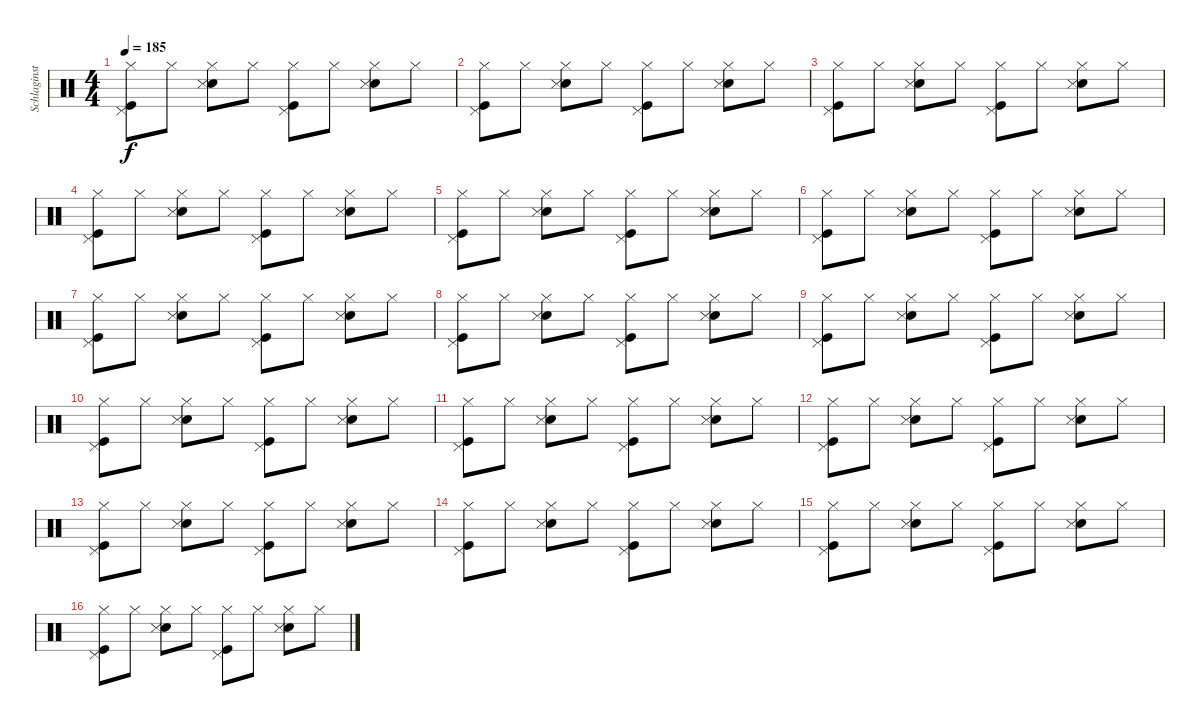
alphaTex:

\track ("Schlaginstrumente - Auswahl" "Schlaginst") {instrument percussion}
\staff {score}
\articulation defaults
\ts (4 4)
\tempo 185
\clef neutral
\ks c
("Kick (hit)" "Pedal Hi-Hat (hit)" "Hi-Hat (closed)").8{dy f} "Hi-Hat (closed)".8 ("Snare (hit) 2" "Snare (side stick) 3" "Hi-Hat (closed)").8 "Hi-Hat (closed)".8 ("Kick (hit)" "Pedal Hi-Hat (hit)" "Hi-Hat (closed)").8 "Hi-Hat (closed)".8 ("Snare (hit) 2" "Snare (side stick) 3" "Hi-Hat (closed)").8 "Hi-Hat (closed)".8 |
("Kick (hit)" "Pedal Hi-Hat (hit)" "Hi-Hat (closed)").8 "Hi-Hat (closed)".8 ("Snare (hit) 2" "Snare (side stick) 3" "Hi-Hat (closed)").8 "Hi-Hat (closed)".8 ("Kick (hit)" "Pedal Hi-Hat (hit)" "Hi-Hat (closed)").8 "Hi-Hat (closed)".8 ("Snare (hit) 2" "Snare (side stick) 3" "Hi-Hat (closed)").8 "Hi-Hat (closed)".8 |
("Kick (hit)" "Pedal Hi-Hat (hit)" "Hi-Hat (closed)").8 "Hi-Hat (closed)".8 ("Snare (hit) 2" "Snare (side stick) 3" "Hi-Hat (closed)").8 "Hi-Hat (closed)".8 ("Kick (hit)" "Pedal Hi-Hat (hit)" "Hi-Hat (closed)").8 "Hi-Hat (closed)".8 ("Snare (hit) 2" "Snare (side stick) 3" "Hi-Hat (closed)").8 "Hi-Hat (closed)".8 |
("Kick (hit)" "Pedal Hi-Hat (hit)" "Hi-Hat (closed)").8 "Hi-Hat (closed)".8 ("Snare (hit) 2" "Snare (side stick) 3" "Hi-Hat (closed)").8 "Hi-Hat (closed)".8 ("Kick (hit)" "Pedal Hi-Hat (hit)" "Hi-Hat (closed)").8 "Hi-Hat (closed)".8 ("Snare (hit) 2" "Snare (side stick) 3" "Hi-Hat (closed)").8 "Hi-Hat (closed)".8 |
("Kick (hit)" "Pedal Hi-Hat (hit)" "Hi-Hat (closed)").8 "Hi-Hat (closed)".8 ("Snare (hit) 2" "Snare (side stick) 3" "Hi-Hat (closed)").8 "Hi-Hat (closed)".8 ("Kick (hit)" "Pedal Hi-Hat (hit)" "Hi-Hat (closed)").8 "Hi-Hat (closed)".8 ("Snare (hit) 2" "Snare (side stick) 3" "Hi-Hat (closed)").8 "Hi-Hat (closed)".8 |
("Kick (hit)" "Pedal Hi-Hat (hit)" "Hi-Hat (closed)").8 "Hi-Hat (closed)".8 ("Snare (hit) 2" "Snare (side stick) 3" "Hi-Hat (closed)").8 "Hi-Hat (closed)".8 ("Kick (hit)" "Pedal Hi-Hat (hit)" "Hi-Hat (closed)").8 "Hi-Hat (closed)".8 ("Snare (hit) 2" "Snare (side stick) 3" "Hi-Hat (closed)").8 "Hi-Hat (closed)".8 |
("Kick (hit)" "Pedal Hi-Hat (hit)" "Hi-Hat (closed)").8 "Hi-Hat (closed)".8 ("Snare (hit) 2" "Snare (side stick) 3" "Hi-Hat (closed)").8 "Hi-Hat (closed)".8 ("Kick (hit)" "Pedal Hi-Hat (hit)" "Hi-Hat (closed)").8 "Hi-Hat (closed)".8 ("Snare (hit) 2" "Snare (side stick) 3" "Hi-Hat (closed)").8 "Hi-Hat (closed)".8 |
("Kick (hit)" "Pedal Hi-Hat (hit)" "Hi-Hat (closed)").8 "Hi-Hat (closed)".8 ("Snare (hit) 2" "Snare (side stick) 3" "Hi-Hat (closed)").8 "Hi-Hat (closed)".8 ("Kick (hit)" "Pedal Hi-Hat (hit)" "Hi-Hat (closed)").8 "Hi-Hat (closed)".8 ("Snare (hit) 2" "Snare (side stick) 3" "Hi-Hat (closed)").8 "Hi-Hat (closed)".8 |
("Kick (hit)" "Pedal Hi-Hat (hit)" "Hi-Hat (closed)").8 "Hi-Hat (closed)".8 ("Snare (hit) 2" "Snare (side stick) 3" "Hi-Hat (closed)").8 "Hi-Hat (closed)".8 ("Kick (hit)" "Pedal Hi-Hat (hit)" "Hi-Hat (closed)").8 "Hi-Hat (closed)".8 ("Snare (hit) 2" "Snare (side stick) 3" "Hi-Hat (closed)").8 "Hi-Hat (closed)".8 |
("Kick (hit)" "Pedal Hi-Hat (hit)" "Hi-Hat (closed)").8 "Hi-Hat (closed)".8 ("Snare (hit) 2" "Snare (side stick) 3" "Hi-Hat (closed)").8 "Hi-Hat (closed)".8 ("Kick (hit)" "Pedal Hi-Hat (hit)" "Hi-Hat (closed)").8 "Hi-Hat (closed)".8 ("Snare (hit) 2" "Snare (side stick) 3" "Hi-Hat (closed)").8 "Hi-Hat (closed)".8 |
("Kick (hit)" "Pedal Hi-Hat (hit)" "Hi-Hat (closed)").8 "Hi-Hat (closed)".8 ("Snare (hit) 2" "Snare (side stick) 3" "Hi-Hat (closed)").8 "Hi-Hat (closed)".8 ("Kick (hit)" "Pedal Hi-Hat (hit)" "Hi-Hat (closed)").8 "Hi-Hat (closed)".8 ("Snare (hit) 2" "Snare (side stick) 3" "Hi-Hat (closed)").8 "Hi-Hat (closed)".8 |
("Kick (hit)" "Pedal Hi-Hat (hit)" "Hi-Hat (closed)").8 "Hi-Hat (closed)".8 ("Snare (hit) 2" "Snare (side stick) 3" "Hi-Hat (closed)").8 "Hi-Hat (closed)".8 ("Kick (hit)" "Pedal Hi-Hat (hit)" "Hi-Hat (closed)").8 "Hi-Hat (closed)".8 ("Snare (hit) 2" "Snare (side stick) 3" "Hi-Hat (closed)").8 "Hi-Hat (closed)".8 |
("Kick (hit)" "Pedal Hi-Hat (hit)" "Hi-Hat (closed)").8 "Hi-Hat (closed)".8 ("Snare (hit) 2" "Snare (side stick) 3" "Hi-Hat (closed)").8 "Hi-Hat (closed)".8 ("Kick (hit)" "Pedal Hi-Hat (hit)" "Hi-Hat (closed)").8 "Hi-Hat (closed)".8 ("Snare (hit) 2" "Snare (side stick) 3" "Hi-Hat (closed)").8 "Hi-Hat (closed)".8 |
("Kick (hit)" "Pedal Hi-Hat (hit)" "Hi-Hat (closed)").8 "Hi-Hat (closed)".8 ("Snare (hit) 2" "Snare (side stick) 3" "Hi-Hat (closed)").8 "Hi-Hat (closed)".8 ("Kick (hit)" "Pedal Hi-Hat (hit)" "Hi-Hat (closed)").8 "Hi-Hat (closed)".8 ("Snare (hit) 2" "Snare (side stick) 3" "Hi-Hat (closed)").8 "Hi-Hat (closed)".8 |
("Kick (hit)" "Pedal Hi-Hat (hit)" "Hi-Hat (closed)").8 "Hi-Hat (closed)".8 ("Snare (hit) 2" "Snare (side stick) 3" "Hi-Hat (closed)").8 "Hi-Hat (closed)".8 ("Kick (hit)" "Pedal Hi-Hat (hit)" "Hi-Hat (closed)").8 "Hi-Hat (closed)".8 ("Snare (hit) 2" "Snare (side stick) 3" "Hi-Hat (closed)").8 "Hi-Hat (closed)".8 |
("Kick (hit)" "Pedal Hi-Hat (hit)" "Hi-Hat (closed)").8 "Hi-Hat (closed)".8 ("Snare (hit) 2" "Snare (side stick) 3" "Hi-Hat (closed)").8 "Hi-Hat (closed)".8 ("Kick (hit)" "Pedal Hi-Hat (hit)" "Hi-Hat (closed)").8 "Hi-Hat (closed)".8 ("Snare (hit) 2" "Snare (side stick) 3" "Hi-Hat (closed)").8 "Hi-Hat (closed)".8
